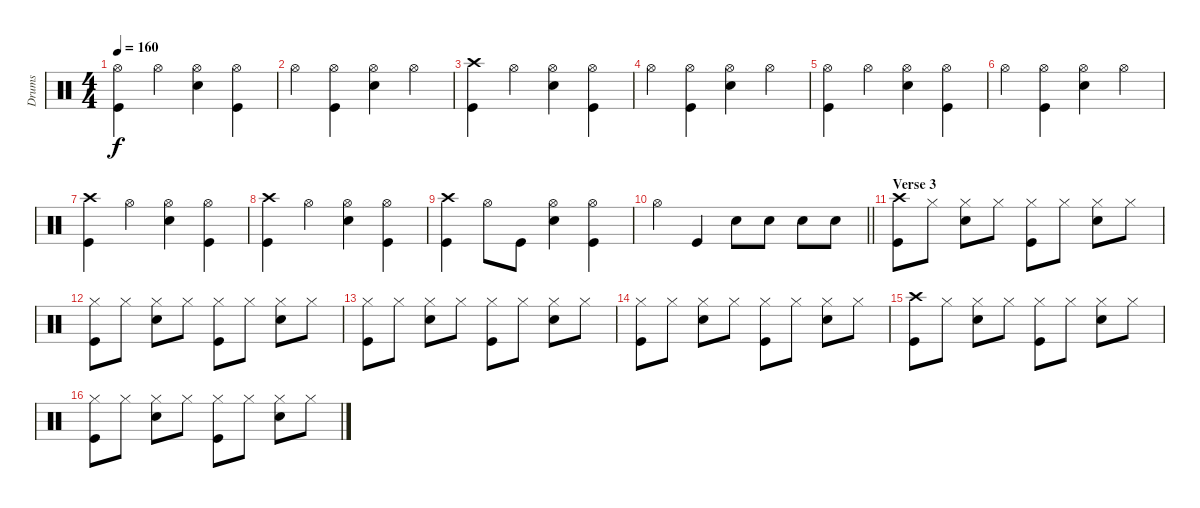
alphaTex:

\track ("Drums" "Drums") {instrument percussion}
\staff {score}
\articulation defaults
\ts (4 4)
\tempo 160
\clef neutral
\ks c
("Kick (hit)" "Hi-Hat (open)").4{dy f} "Hi-Hat (open)".4 ("Snare (hit) 2" "Hi-Hat (open)").4 ("Kick (hit)" "Hi-Hat (open)").4 |
"Hi-Hat (open)".4 ("Kick (hit)" "Hi-Hat (open)").4 ("Snare (hit) 2" "Hi-Hat (open)").4 "Hi-Hat (open)".4 |
("Kick (hit)" "Crash high (hit)").4 "Hi-Hat (open)".4 ("Snare (hit) 2" "Hi-Hat (open)").4 ("Kick (hit)" "Hi-Hat (open)").4 |
"Hi-Hat (open)".4 ("Hi-Hat (open)" "Kick (hit)").4 ("Snare (hit) 2" "Hi-Hat (open)").4 "Hi-Hat (open)".4 |
("Kick (hit)" "Hi-Hat (open)").4 "Hi-Hat (open)".4 ("Snare (hit) 2" "Hi-Hat (open)").4 ("Kick (hit)" "Hi-Hat (open)").4 |
"Hi-Hat (open)".4 ("Kick (hit)" "Hi-Hat (open)").4 ("Snare (hit) 2" "Hi-Hat (open)").4 "Hi-Hat (open)".4 |
("Kick (hit)" "Crash high (hit)").4 "Hi-Hat (open)".4 ("Snare (hit) 2" "Hi-Hat (open)").4 ("Kick (hit)" "Hi-Hat (open)").4 |
("Crash high (hit)" "Kick (hit)").4 "Hi-Hat (open)".4 ("Snare (hit) 2" "Hi-Hat (open)").4 ("Hi-Hat (open)" "Kick (hit)").4 |
("Kick (hit)" "Crash high (hit)").4 "Hi-Hat (open)".8 "Kick (hit)".8 ("Snare (hit) 2" "Hi-Hat (open)").4 ("Kick (hit)" "Hi-Hat (open)").4 |
\barLineRight lightlight "Hi-Hat (open)".4 "Kick (hit)".4 "Snare (hit) 2".8 "Snare (hit) 2".8 "Snare (hit) 2".8 "Snare (hit) 2".8
|
\section ("" "Verse 3")
("Kick (hit)" "Crash high (hit)").8 "Hi-Hat (closed)".8 ("Hi-Hat (closed)" "Snare (hit) 2").8 "Hi-Hat (closed)".8 ("Kick (hit)" "Hi-Hat (closed)").8 "Hi-Hat (closed)".8 ("Hi-Hat (closed)" "Snare (hit) 2").8 "Hi-Hat (closed)".8 |
("Kick (hit)" "Hi-Hat (closed)").8 "Hi-Hat (closed)".8 ("Hi-Hat (closed)" "Snare (hit) 2").8 "Hi-Hat (closed)".8 ("Kick (hit)" "Hi-Hat (closed)").8 "Hi-Hat (closed)".8 ("Hi-Hat (closed)" "Snare (hit) 2").8 "Hi-Hat (closed)".8 |
("Kick (hit)" "Hi-Hat (closed)").8 "Hi-Hat (closed)".8 ("Hi-Hat (closed)" "Snare (hit) 2").8 "Hi-Hat (closed)".8 ("Kick (hit)" "Hi-Hat (closed)").8 "Hi-Hat (closed)".8 ("Hi-Hat (closed)" "Snare (hit) 2").8 "Hi-Hat (closed)".8 |
("Kick (hit)" "Hi-Hat (closed)").8 "Hi-Hat (closed)".8 ("Hi-Hat (closed)" "Snare (hit) 2").8 "Hi-Hat (closed)".8 ("Kick (hit)" "Hi-Hat (closed)").8 "Hi-Hat (closed)".8 ("Hi-Hat (closed)" "Snare (hit) 2").8 "Hi-Hat (closed)".8 |
("Kick (hit)" "Crash high (hit)").8 "Hi-Hat (closed)".8 ("Hi-Hat (closed)" "Snare (hit) 2").8 "Hi-Hat (closed)".8 ("Kick (hit)" "Hi-Hat (closed)").8 "Hi-Hat (closed)".8 ("Hi-Hat (closed)" "Snare (hit) 2").8 "Hi-Hat (closed)".8 |
("Kick (hit)" "Hi-Hat (closed)").8 "Hi-Hat (closed)".8 ("Hi-Hat (closed)" "Snare (hit) 2").8 "Hi-Hat (closed)".8 ("Kick (hit)" "Hi-Hat (closed)").8 "Hi-Hat (closed)".8 ("Hi-Hat (closed)" "Snare (hit) 2").8 "Hi-Hat (closed)".8
